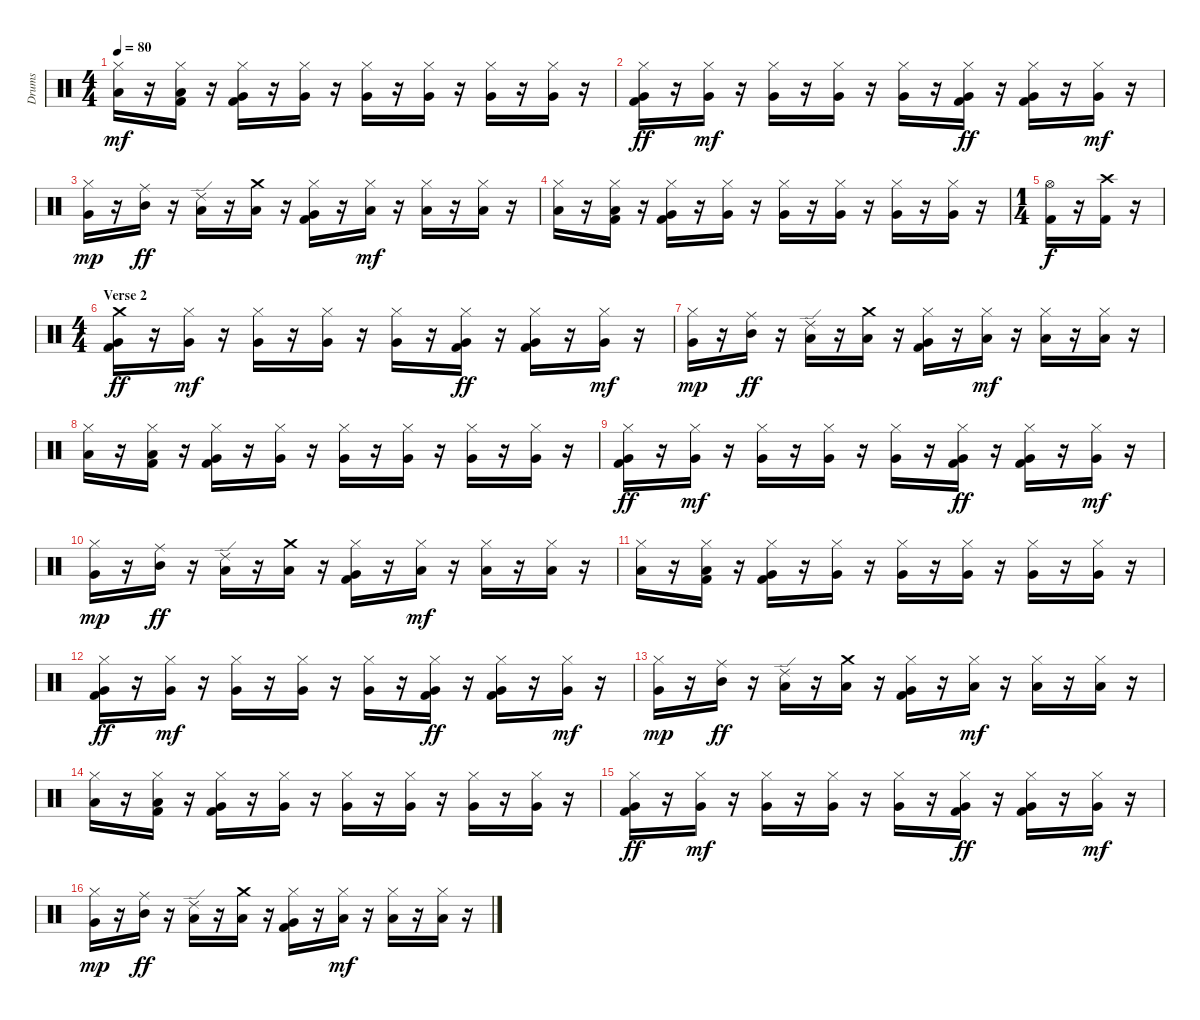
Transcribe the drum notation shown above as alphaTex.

\track ("Drums" "Drums") {instrument percussion}
\staff {score}
\articulation defaults
\ts (4 4)
\tempo 80
\clef neutral
\ks c
("Hi-Hat (closed)" "Low Tom (hit)").16{dy mf} r.16 ("Hi-Hat (closed)" "Low Tom (hit)" "Kick (hit) 2").16 r.16 ("Hi-Hat (closed)" "Very Low Tom (hit)" "Kick (hit) 2").16 r.16 ("Hi-Hat (closed)" "Very Low Tom (hit)").16 r.16 ("Hi-Hat (closed)" "Very Low Tom (hit)").16 r.16 ("Hi-Hat (closed)" "Very Low Tom (hit)").16 r.16 ("Hi-Hat (closed)" "Very Low Tom (hit)").16 r.16 ("Hi-Hat (closed)" "Very Low Tom (hit)").16 r.16 |
("Hi-Hat (closed)" "Very Low Tom (hit)" "Kick (hit) 2").16{dy ff} r.16 ("Hi-Hat (closed)" "Very Low Tom (hit)").16{dy mf} r.16 ("Hi-Hat (closed)" "Very Low Tom (hit)").16 r.16 ("Hi-Hat (closed)" "Very Low Tom (hit)").16 r.16 ("Hi-Hat (closed)" "Very Low Tom (hit)").16 r.16 ("Hi-Hat (closed)" "Very Low Tom (hit)" "Kick (hit) 2").16{dy ff} r.16 ("Hi-Hat (closed)" "Very Low Tom (hit)" "Kick (hit) 2").16 r.16 ("Hi-Hat (closed)" "Very Low Tom (hit)").16{dy mf} r.16 |
("Hi-Hat (closed)" "Very Low Tom (hit)").16{dy mp} r.16 ("Ride (middle)" "Mid Tom (hit)").16{dy ff} r.16 ("Ride (edge) 2" "Low Tom (hit)").16 r.16 ("Crash medium (hit)" "Low Floor Tom (hit)").16 r.16 ("Hi-Hat (closed)" "Very Low Tom (hit)" "Kick (hit) 2").16 r.16 ("Hi-Hat (closed)" "Low Tom (hit)").16{dy mf} r.16 ("Hi-Hat (closed)" "Low Tom (hit)").16 r.16 ("Hi-Hat (closed)" "Low Tom (hit)").16 r.16 |
("Hi-Hat (closed)" "Low Tom (hit)").16 r.16 ("Hi-Hat (closed)" "Low Tom (hit)" "Kick (hit) 2").16 r.16 ("Hi-Hat (closed)" "Very Low Tom (hit)" "Kick (hit) 2").16 r.16 ("Hi-Hat (closed)" "Very Low Tom (hit)").16 r.16 ("Hi-Hat (closed)" "Very Low Tom (hit)").16 r.16 ("Hi-Hat (closed)" "Very Low Tom (hit)").16 r.16 ("Hi-Hat (closed)" "Very Low Tom (hit)").16 r.16 ("Hi-Hat (closed)" "Very Low Tom (hit)").16 r.16 |
\ts (1 4)
("Hi-Hat (open)" "Kick (hit) 2").16{dy f} r.16 ("Crash high (hit)" "Kick (hit) 2").16 r.16 |
\ts (4 4)
\section ("" "Verse 2")
("Crash medium (hit)" "Very Low Tom (hit)" "Kick (hit) 2").16{dy ff} r.16 ("Hi-Hat (closed)" "Very Low Tom (hit)").16{dy mf} r.16 ("Hi-Hat (closed)" "Very Low Tom (hit)").16 r.16 ("Hi-Hat (closed)" "Very Low Tom (hit)").16 r.16 ("Hi-Hat (closed)" "Very Low Tom (hit)").16 r.16 ("Hi-Hat (closed)" "Very Low Tom (hit)" "Kick (hit) 2").16{dy ff} r.16 ("Hi-Hat (closed)" "Very Low Tom (hit)" "Kick (hit) 2").16 r.16 ("Hi-Hat (closed)" "Very Low Tom (hit)").16{dy mf} r.16 |
("Hi-Hat (closed)" "Very Low Tom (hit)").16{dy mp} r.16 ("Ride (middle)" "Mid Tom (hit)").16{dy ff} r.16 ("Ride (edge) 2" "Low Tom (hit)").16 r.16 ("Crash medium (hit)" "Low Floor Tom (hit)").16 r.16 ("Hi-Hat (closed)" "Very Low Tom (hit)" "Kick (hit) 2").16 r.16 ("Hi-Hat (closed)" "Low Tom (hit)").16{dy mf} r.16 ("Hi-Hat (closed)" "Low Tom (hit)").16 r.16 ("Hi-Hat (closed)" "Low Tom (hit)").16 r.16 |
("Hi-Hat (closed)" "Low Tom (hit)").16 r.16 ("Hi-Hat (closed)" "Low Tom (hit)" "Kick (hit) 2").16 r.16 ("Hi-Hat (closed)" "Very Low Tom (hit)" "Kick (hit) 2").16 r.16 ("Hi-Hat (closed)" "Very Low Tom (hit)").16 r.16 ("Hi-Hat (closed)" "Very Low Tom (hit)").16 r.16 ("Hi-Hat (closed)" "Very Low Tom (hit)").16 r.16 ("Hi-Hat (closed)" "Very Low Tom (hit)").16 r.16 ("Hi-Hat (closed)" "Very Low Tom (hit)").16 r.16 |
("Hi-Hat (closed)" "Very Low Tom (hit)" "Kick (hit) 2").16{dy ff} r.16 ("Hi-Hat (closed)" "Very Low Tom (hit)").16{dy mf} r.16 ("Hi-Hat (closed)" "Very Low Tom (hit)").16 r.16 ("Hi-Hat (closed)" "Very Low Tom (hit)").16 r.16 ("Hi-Hat (closed)" "Very Low Tom (hit)").16 r.16 ("Hi-Hat (closed)" "Very Low Tom (hit)" "Kick (hit) 2").16{dy ff} r.16 ("Hi-Hat (closed)" "Very Low Tom (hit)" "Kick (hit) 2").16 r.16 ("Hi-Hat (closed)" "Very Low Tom (hit)").16{dy mf} r.16 |
("Hi-Hat (closed)" "Very Low Tom (hit)").16{dy mp} r.16 ("Ride (middle)" "Mid Tom (hit)").16{dy ff} r.16 ("Ride (edge) 2" "Low Tom (hit)").16 r.16 ("Crash medium (hit)" "Low Floor Tom (hit)").16 r.16 ("Hi-Hat (closed)" "Very Low Tom (hit)" "Kick (hit) 2").16 r.16 ("Hi-Hat (closed)" "Low Tom (hit)").16{dy mf} r.16 ("Hi-Hat (closed)" "Low Tom (hit)").16 r.16 ("Hi-Hat (closed)" "Low Tom (hit)").16 r.16 |
("Hi-Hat (closed)" "Low Tom (hit)").16 r.16 ("Hi-Hat (closed)" "Low Tom (hit)" "Kick (hit) 2").16 r.16 ("Hi-Hat (closed)" "Very Low Tom (hit)" "Kick (hit) 2").16 r.16 ("Hi-Hat (closed)" "Very Low Tom (hit)").16 r.16 ("Hi-Hat (closed)" "Very Low Tom (hit)").16 r.16 ("Hi-Hat (closed)" "Very Low Tom (hit)").16 r.16 ("Hi-Hat (closed)" "Very Low Tom (hit)").16 r.16 ("Hi-Hat (closed)" "Very Low Tom (hit)").16 r.16 |
("Hi-Hat (closed)" "Very Low Tom (hit)" "Kick (hit) 2").16{dy ff} r.16 ("Hi-Hat (closed)" "Very Low Tom (hit)").16{dy mf} r.16 ("Hi-Hat (closed)" "Very Low Tom (hit)").16 r.16 ("Hi-Hat (closed)" "Very Low Tom (hit)").16 r.16 ("Hi-Hat (closed)" "Very Low Tom (hit)").16 r.16 ("Hi-Hat (closed)" "Very Low Tom (hit)" "Kick (hit) 2").16{dy ff} r.16 ("Hi-Hat (closed)" "Very Low Tom (hit)" "Kick (hit) 2").16 r.16 ("Hi-Hat (closed)" "Very Low Tom (hit)").16{dy mf} r.16 |
("Hi-Hat (closed)" "Very Low Tom (hit)").16{dy mp} r.16 ("Ride (middle)" "Mid Tom (hit)").16{dy ff} r.16 ("Ride (edge) 2" "Low Tom (hit)").16 r.16 ("Crash medium (hit)" "Low Floor Tom (hit)").16 r.16 ("Hi-Hat (closed)" "Very Low Tom (hit)" "Kick (hit) 2").16 r.16 ("Hi-Hat (closed)" "Low Tom (hit)").16{dy mf} r.16 ("Hi-Hat (closed)" "Low Tom (hit)").16 r.16 ("Hi-Hat (closed)" "Low Tom (hit)").16 r.16 |
("Hi-Hat (closed)" "Low Tom (hit)").16 r.16 ("Hi-Hat (closed)" "Low Tom (hit)" "Kick (hit) 2").16 r.16 ("Hi-Hat (closed)" "Very Low Tom (hit)" "Kick (hit) 2").16 r.16 ("Hi-Hat (closed)" "Very Low Tom (hit)").16 r.16 ("Hi-Hat (closed)" "Very Low Tom (hit)").16 r.16 ("Hi-Hat (closed)" "Very Low Tom (hit)").16 r.16 ("Hi-Hat (closed)" "Very Low Tom (hit)").16 r.16 ("Hi-Hat (closed)" "Very Low Tom (hit)").16 r.16 |
("Hi-Hat (closed)" "Very Low Tom (hit)" "Kick (hit) 2").16{dy ff} r.16 ("Hi-Hat (closed)" "Very Low Tom (hit)").16{dy mf} r.16 ("Hi-Hat (closed)" "Very Low Tom (hit)").16 r.16 ("Hi-Hat (closed)" "Very Low Tom (hit)").16 r.16 ("Hi-Hat (closed)" "Very Low Tom (hit)").16 r.16 ("Hi-Hat (closed)" "Very Low Tom (hit)" "Kick (hit) 2").16{dy ff} r.16 ("Hi-Hat (closed)" "Very Low Tom (hit)" "Kick (hit) 2").16 r.16 ("Hi-Hat (closed)" "Very Low Tom (hit)").16{dy mf} r.16 |
("Hi-Hat (closed)" "Very Low Tom (hit)").16{dy mp} r.16 ("Ride (middle)" "Mid Tom (hit)").16{dy ff} r.16 ("Ride (edge) 2" "Low Tom (hit)").16 r.16 ("Crash medium (hit)" "Low Floor Tom (hit)").16 r.16 ("Hi-Hat (closed)" "Very Low Tom (hit)" "Kick (hit) 2").16 r.16 ("Hi-Hat (closed)" "Low Tom (hit)").16{dy mf} r.16 ("Hi-Hat (closed)" "Low Tom (hit)").16 r.16 ("Hi-Hat (closed)" "Low Tom (hit)").16 r.16
